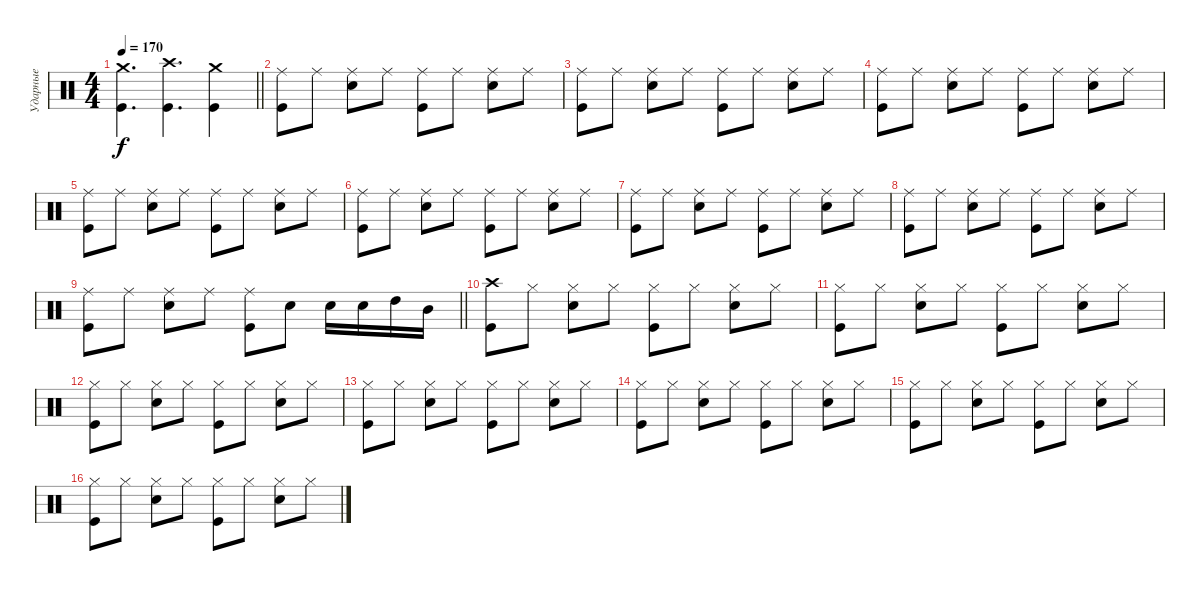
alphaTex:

\track ("Ударные" "Ударные") {instrument percussion}
\staff {score}
\articulation defaults
\ts (4 4)
\tempo 170
\clef neutral
\barLineRight lightlight
\ks c
("Crash medium (hit)" "Kick (hit)").4{d dy f} ("Crash high (hit)" "Kick (hit)").4{d} ("Crash medium (hit)" "Kick (hit)").4 |
("Ride (middle)" "Kick (hit)").8 "Ride (middle)".8 ("Ride (middle)" "Electric Snare (hit)").8 "Ride (middle)".8 ("Ride (middle)" "Kick (hit)").8 "Ride (middle)".8 ("Ride (middle)" "Electric Snare (hit)").8 "Ride (middle)".8 |
("Ride (middle)" "Kick (hit)").8 "Ride (middle)".8 ("Ride (middle)" "Electric Snare (hit)").8 "Ride (middle)".8 ("Ride (middle)" "Kick (hit)").8 "Ride (middle)".8 ("Ride (middle)" "Electric Snare (hit)").8 "Ride (middle)".8 |
("Ride (middle)" "Kick (hit)").8 "Ride (middle)".8 ("Ride (middle)" "Electric Snare (hit)").8 "Ride (middle)".8 ("Ride (middle)" "Kick (hit)").8 "Ride (middle)".8 ("Ride (middle)" "Electric Snare (hit)").8 "Ride (middle)".8 |
("Ride (middle)" "Kick (hit)").8 "Ride (middle)".8 ("Ride (middle)" "Electric Snare (hit)").8 "Ride (middle)".8 ("Ride (middle)" "Kick (hit)").8 "Ride (middle)".8 ("Ride (middle)" "Electric Snare (hit)").8 "Ride (middle)".8 |
("Ride (middle)" "Kick (hit)").8 "Ride (middle)".8 ("Ride (middle)" "Electric Snare (hit)").8 "Ride (middle)".8 ("Ride (middle)" "Kick (hit)").8 "Ride (middle)".8 ("Ride (middle)" "Electric Snare (hit)").8 "Ride (middle)".8 |
("Ride (middle)" "Kick (hit)").8 "Ride (middle)".8 ("Ride (middle)" "Electric Snare (hit)").8 "Ride (middle)".8 ("Ride (middle)" "Kick (hit)").8 "Ride (middle)".8 ("Ride (middle)" "Electric Snare (hit)").8 "Ride (middle)".8 |
("Ride (middle)" "Kick (hit)").8 "Ride (middle)".8 ("Ride (middle)" "Electric Snare (hit)").8 "Ride (middle)".8 ("Ride (middle)" "Kick (hit)").8 "Ride (middle)".8 ("Ride (middle)" "Electric Snare (hit)").8 "Ride (middle)".8 |
\barLineRight lightlight
("Ride (middle)" "Kick (hit)").8 "Ride (middle)".8 ("Ride (middle)" "Electric Snare (hit)").8 "Ride (middle)".8 ("Ride (middle)" "Kick (hit)").8 "Electric Snare (hit)".8 "Electric Snare (hit)".16 "Electric Snare (hit)".16 "High Tom (hit)".16 "Mid Tom (hit)".16 |
("Kick (hit)" "Crash high (hit)").8 "Hi-Hat (closed)".8 ("Electric Snare (hit)" "Hi-Hat (closed)").8 "Hi-Hat (closed)".8 ("Kick (hit)" "Hi-Hat (closed)").8 "Hi-Hat (closed)".8 ("Electric Snare (hit)" "Hi-Hat (closed)").8 "Hi-Hat (closed)".8 |
("Kick (hit)" "Hi-Hat (closed)").8 "Hi-Hat (closed)".8 ("Electric Snare (hit)" "Hi-Hat (closed)").8 "Hi-Hat (closed)".8 ("Kick (hit)" "Hi-Hat (closed)").8 "Hi-Hat (closed)".8 ("Electric Snare (hit)" "Hi-Hat (closed)").8 "Hi-Hat (closed)".8 |
("Kick (hit)" "Hi-Hat (closed)").8 "Hi-Hat (closed)".8 ("Electric Snare (hit)" "Hi-Hat (closed)").8 "Hi-Hat (closed)".8 ("Kick (hit)" "Hi-Hat (closed)").8 "Hi-Hat (closed)".8 ("Electric Snare (hit)" "Hi-Hat (closed)").8 "Hi-Hat (closed)".8 |
("Kick (hit)" "Hi-Hat (closed)").8 "Hi-Hat (closed)".8 ("Electric Snare (hit)" "Hi-Hat (closed)").8 "Hi-Hat (closed)".8 ("Kick (hit)" "Hi-Hat (closed)").8 "Hi-Hat (closed)".8 ("Electric Snare (hit)" "Hi-Hat (closed)").8 "Hi-Hat (closed)".8 |
("Kick (hit)" "Hi-Hat (closed)").8 "Hi-Hat (closed)".8 ("Electric Snare (hit)" "Hi-Hat (closed)").8 "Hi-Hat (closed)".8 ("Kick (hit)" "Hi-Hat (closed)").8 "Hi-Hat (closed)".8 ("Electric Snare (hit)" "Hi-Hat (closed)").8 "Hi-Hat (closed)".8 |
("Kick (hit)" "Hi-Hat (closed)").8 "Hi-Hat (closed)".8 ("Electric Snare (hit)" "Hi-Hat (closed)").8 "Hi-Hat (closed)".8 ("Kick (hit)" "Hi-Hat (closed)").8 "Hi-Hat (closed)".8 ("Electric Snare (hit)" "Hi-Hat (closed)").8 "Hi-Hat (closed)".8 |
("Kick (hit)" "Hi-Hat (closed)").8 "Hi-Hat (closed)".8 ("Electric Snare (hit)" "Hi-Hat (closed)").8 "Hi-Hat (closed)".8 ("Kick (hit)" "Hi-Hat (closed)").8 "Hi-Hat (closed)".8 ("Electric Snare (hit)" "Hi-Hat (closed)").8 "Hi-Hat (closed)".8
